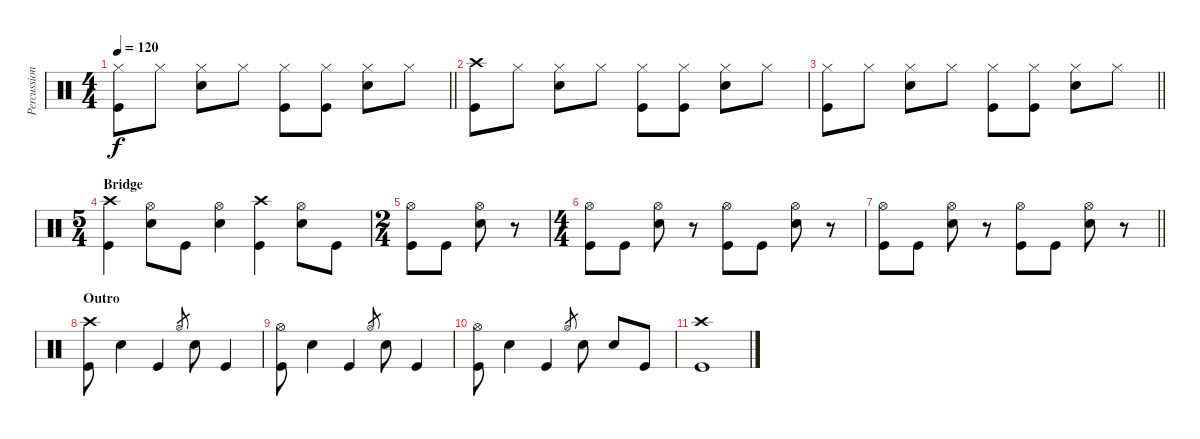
\track ("Percussion" "Percussion") {instrument percussion}
\staff {score}
\articulation defaults
\ts (4 4)
\tempo 120
\clef neutral
\barLineRight lightlight
\ks c
("Hi-Hat (closed)" "Kick (hit)").8{dy f} "Hi-Hat (closed)".8 ("Hi-Hat (closed)" "Snare (hit) 2").8 "Hi-Hat (closed)".8 ("Hi-Hat (closed)" "Kick (hit)").8 ("Hi-Hat (closed)" "Kick (hit)").8 ("Hi-Hat (closed)" "Snare (hit) 2").8 "Hi-Hat (closed)".8 |
("Crash high (hit)" "Kick (hit)").8 "Hi-Hat (closed)".8 ("Hi-Hat (closed)" "Snare (hit) 2").8 "Hi-Hat (closed)".8 ("Hi-Hat (closed)" "Kick (hit)").8 ("Hi-Hat (closed)" "Kick (hit)").8 ("Hi-Hat (closed)" "Snare (hit) 2").8 "Hi-Hat (closed)".8 |
\barLineRight lightlight
("Hi-Hat (closed)" "Kick (hit)").8 "Hi-Hat (closed)".8 ("Hi-Hat (closed)" "Snare (hit) 2").8 "Hi-Hat (closed)".8 ("Hi-Hat (closed)" "Kick (hit)").8 ("Hi-Hat (closed)" "Kick (hit)").8 ("Hi-Hat (closed)" "Snare (hit) 2").8 "Hi-Hat (closed)".8 |
\ts (5 4)
\section ("" "Bridge")
("Crash high (hit)" "Kick (hit)").4 ("Hi-Hat (open)" "Snare (hit) 2").8 "Kick (hit)".8 ("Hi-Hat (open)" "Snare (hit) 2").4 ("Crash high (hit)" "Kick (hit)").4 ("Hi-Hat (open)" "Snare (hit) 2").8 "Kick (hit)".8 |
\ts (2 4)
("Hi-Hat (open)" "Kick (hit)").8 "Kick (hit)".8 ("Hi-Hat (open)" "Snare (hit) 2").8 r.8 |
\ts (4 4)
("Hi-Hat (open)" "Kick (hit)").8 "Kick (hit)".8 ("Hi-Hat (open)" "Snare (hit) 2").8 r.8 ("Hi-Hat (open)" "Kick (hit)").8 "Kick (hit)".8 ("Hi-Hat (open)" "Snare (hit) 2").8 r.8 |
\barLineRight lightlight
("Hi-Hat (open)" "Kick (hit)").8 "Kick (hit)".8 ("Hi-Hat (open)" "Snare (hit) 2").8 r.8 ("Hi-Hat (open)" "Kick (hit)").8 "Kick (hit)".8 ("Hi-Hat (open)" "Snare (hit) 2").8 r.8 |
\section ("" "Outro")
("Crash high (hit)" "Kick (hit)").8 "Snare (hit) 2".4 "Kick (hit)".4 "Hi-Hat (open)".8{gr} "Snare (hit) 2".8 "Kick (hit)".4 |
("Hi-Hat (open)" "Kick (hit)").8 "Snare (hit) 2".4 "Kick (hit)".4 "Hi-Hat (open)".8{gr} "Snare (hit) 2".8 "Kick (hit)".4 |
("Hi-Hat (open)" "Kick (hit)").8 "Snare (hit) 2".4 "Kick (hit)".4 "Hi-Hat (open)".8{gr} "Snare (hit) 2".8 "Snare (hit) 2".8 "Kick (hit)".8 |
("Crash high (hit)" "Kick (hit)").1
